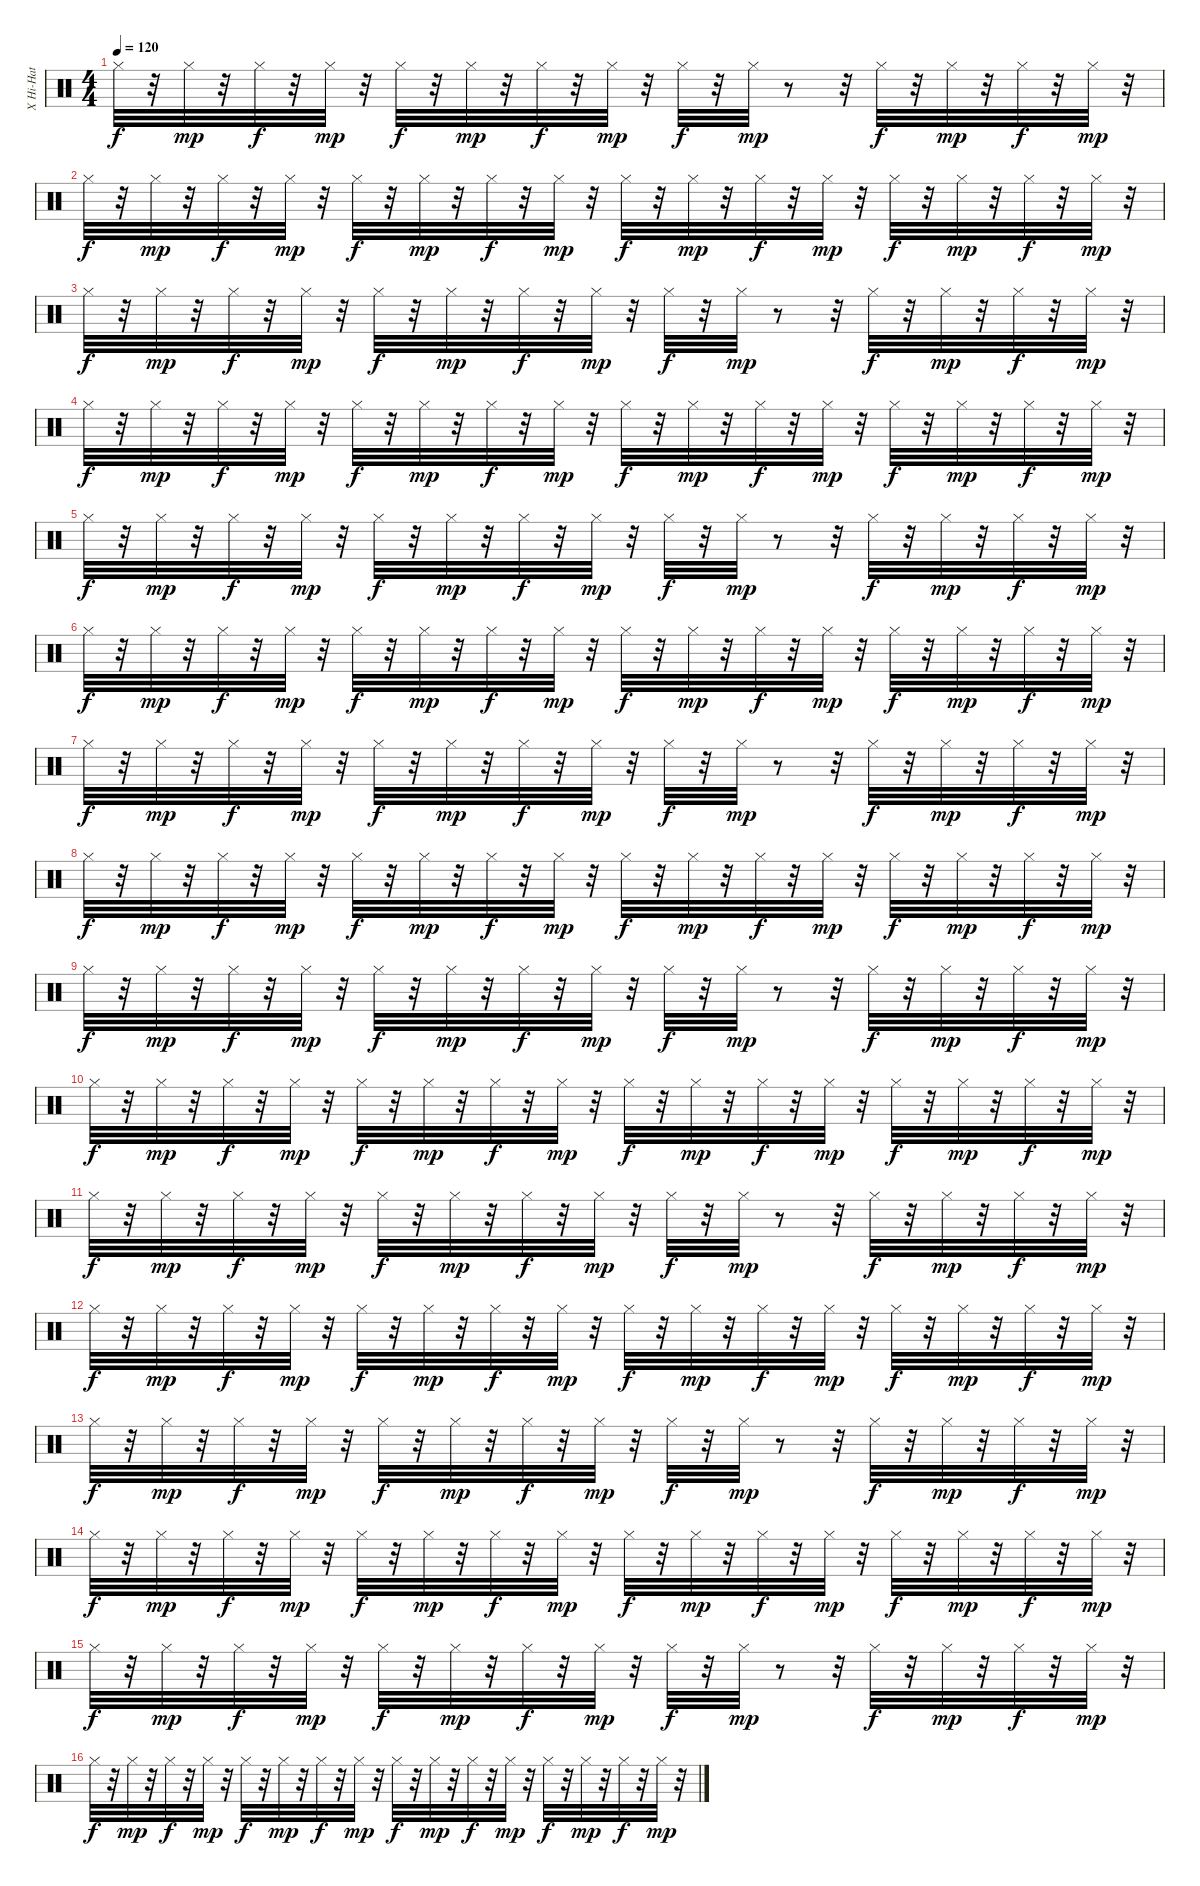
\track ("X Hi-Hat            " "X Hi-Hat  ") {instrument percussion}
\staff {score}
\articulation defaults
\ts (4 4)
\tempo 120
\clef neutral
\ks c "Hi-Hat (closed)".32{dy f}
r.32 "Hi-Hat (closed)".32{dy mp} r.32 "Hi-Hat (closed)".32{dy f} r.32 "Hi-Hat (closed)".32{dy mp} r.32 "Hi-Hat (closed)".32{dy f} r.32 "Hi-Hat (closed)".32{dy mp} r.32 "Hi-Hat (closed)".32{dy f} r.32 "Hi-Hat (closed)".32{dy mp} r.32 "Hi-Hat (closed)".32{dy f} r.32 "Hi-Hat (closed)".32{dy mp} r.8 r.32 "Hi-Hat (closed)".32{dy f} r.32 "Hi-Hat (closed)".32{dy mp} r.32 "Hi-Hat (closed)".32{dy f} r.32 "Hi-Hat (closed)".32{dy mp} r.32 |
"Hi-Hat (closed)".32{dy f} r.32 "Hi-Hat (closed)".32{dy mp} r.32 "Hi-Hat (closed)".32{dy f} r.32 "Hi-Hat (closed)".32{dy mp} r.32 "Hi-Hat (closed)".32{dy f} r.32 "Hi-Hat (closed)".32{dy mp} r.32 "Hi-Hat (closed)".32{dy f} r.32 "Hi-Hat (closed)".32{dy mp} r.32 "Hi-Hat (closed)".32{dy f} r.32 "Hi-Hat (closed)".32{dy mp} r.32 "Hi-Hat (closed)".32{dy f} r.32 "Hi-Hat (closed)".32{dy mp} r.32 "Hi-Hat (closed)".32{dy f} r.32 "Hi-Hat (closed)".32{dy mp} r.32 "Hi-Hat (closed)".32{dy f} r.32 "Hi-Hat (closed)".32{dy mp} r.32 |
"Hi-Hat (closed)".32{dy f} r.32 "Hi-Hat (closed)".32{dy mp} r.32 "Hi-Hat (closed)".32{dy f} r.32 "Hi-Hat (closed)".32{dy mp} r.32 "Hi-Hat (closed)".32{dy f} r.32 "Hi-Hat (closed)".32{dy mp} r.32 "Hi-Hat (closed)".32{dy f} r.32 "Hi-Hat (closed)".32{dy mp} r.32 "Hi-Hat (closed)".32{dy f} r.32 "Hi-Hat (closed)".32{dy mp} r.8 r.32 "Hi-Hat (closed)".32{dy f} r.32 "Hi-Hat (closed)".32{dy mp} r.32 "Hi-Hat (closed)".32{dy f} r.32 "Hi-Hat (closed)".32{dy mp} r.32 |
"Hi-Hat (closed)".32{dy f} r.32 "Hi-Hat (closed)".32{dy mp} r.32 "Hi-Hat (closed)".32{dy f} r.32 "Hi-Hat (closed)".32{dy mp} r.32 "Hi-Hat (closed)".32{dy f} r.32 "Hi-Hat (closed)".32{dy mp} r.32 "Hi-Hat (closed)".32{dy f} r.32 "Hi-Hat (closed)".32{dy mp} r.32 "Hi-Hat (closed)".32{dy f} r.32 "Hi-Hat (closed)".32{dy mp} r.32 "Hi-Hat (closed)".32{dy f} r.32 "Hi-Hat (closed)".32{dy mp} r.32 "Hi-Hat (closed)".32{dy f} r.32 "Hi-Hat (closed)".32{dy mp} r.32 "Hi-Hat (closed)".32{dy f} r.32 "Hi-Hat (closed)".32{dy mp} r.32 |
"Hi-Hat (closed)".32{dy f} r.32 "Hi-Hat (closed)".32{dy mp} r.32 "Hi-Hat (closed)".32{dy f} r.32 "Hi-Hat (closed)".32{dy mp} r.32 "Hi-Hat (closed)".32{dy f} r.32 "Hi-Hat (closed)".32{dy mp} r.32 "Hi-Hat (closed)".32{dy f} r.32 "Hi-Hat (closed)".32{dy mp} r.32 "Hi-Hat (closed)".32{dy f} r.32 "Hi-Hat (closed)".32{dy mp} r.8 r.32 "Hi-Hat (closed)".32{dy f} r.32 "Hi-Hat (closed)".32{dy mp} r.32 "Hi-Hat (closed)".32{dy f} r.32 "Hi-Hat (closed)".32{dy mp} r.32 |
"Hi-Hat (closed)".32{dy f} r.32 "Hi-Hat (closed)".32{dy mp} r.32 "Hi-Hat (closed)".32{dy f} r.32 "Hi-Hat (closed)".32{dy mp} r.32 "Hi-Hat (closed)".32{dy f} r.32 "Hi-Hat (closed)".32{dy mp} r.32 "Hi-Hat (closed)".32{dy f} r.32 "Hi-Hat (closed)".32{dy mp} r.32 "Hi-Hat (closed)".32{dy f} r.32 "Hi-Hat (closed)".32{dy mp} r.32 "Hi-Hat (closed)".32{dy f} r.32 "Hi-Hat (closed)".32{dy mp} r.32 "Hi-Hat (closed)".32{dy f} r.32 "Hi-Hat (closed)".32{dy mp} r.32 "Hi-Hat (closed)".32{dy f} r.32 "Hi-Hat (closed)".32{dy mp} r.32 |
"Hi-Hat (closed)".32{dy f} r.32 "Hi-Hat (closed)".32{dy mp} r.32 "Hi-Hat (closed)".32{dy f} r.32 "Hi-Hat (closed)".32{dy mp} r.32 "Hi-Hat (closed)".32{dy f} r.32 "Hi-Hat (closed)".32{dy mp} r.32 "Hi-Hat (closed)".32{dy f} r.32 "Hi-Hat (closed)".32{dy mp} r.32 "Hi-Hat (closed)".32{dy f} r.32 "Hi-Hat (closed)".32{dy mp} r.8 r.32 "Hi-Hat (closed)".32{dy f} r.32 "Hi-Hat (closed)".32{dy mp} r.32 "Hi-Hat (closed)".32{dy f} r.32 "Hi-Hat (closed)".32{dy mp} r.32 |
"Hi-Hat (closed)".32{dy f} r.32 "Hi-Hat (closed)".32{dy mp} r.32 "Hi-Hat (closed)".32{dy f} r.32 "Hi-Hat (closed)".32{dy mp} r.32 "Hi-Hat (closed)".32{dy f} r.32 "Hi-Hat (closed)".32{dy mp} r.32 "Hi-Hat (closed)".32{dy f} r.32 "Hi-Hat (closed)".32{dy mp} r.32 "Hi-Hat (closed)".32{dy f} r.32 "Hi-Hat (closed)".32{dy mp} r.32 "Hi-Hat (closed)".32{dy f} r.32 "Hi-Hat (closed)".32{dy mp} r.32 "Hi-Hat (closed)".32{dy f} r.32 "Hi-Hat (closed)".32{dy mp} r.32 "Hi-Hat (closed)".32{dy f} r.32 "Hi-Hat (closed)".32{dy mp} r.32 |
"Hi-Hat (closed)".32{dy f} r.32 "Hi-Hat (closed)".32{dy mp} r.32 "Hi-Hat (closed)".32{dy f} r.32 "Hi-Hat (closed)".32{dy mp} r.32 "Hi-Hat (closed)".32{dy f} r.32 "Hi-Hat (closed)".32{dy mp} r.32 "Hi-Hat (closed)".32{dy f} r.32 "Hi-Hat (closed)".32{dy mp} r.32 "Hi-Hat (closed)".32{dy f} r.32 "Hi-Hat (closed)".32{dy mp} r.8 r.32 "Hi-Hat (closed)".32{dy f} r.32 "Hi-Hat (closed)".32{dy mp} r.32 "Hi-Hat (closed)".32{dy f} r.32 "Hi-Hat (closed)".32{dy mp} r.32 |
"Hi-Hat (closed)".32{dy f} r.32 "Hi-Hat (closed)".32{dy mp} r.32 "Hi-Hat (closed)".32{dy f} r.32 "Hi-Hat (closed)".32{dy mp} r.32 "Hi-Hat (closed)".32{dy f} r.32 "Hi-Hat (closed)".32{dy mp} r.32 "Hi-Hat (closed)".32{dy f} r.32 "Hi-Hat (closed)".32{dy mp} r.32 "Hi-Hat (closed)".32{dy f} r.32 "Hi-Hat (closed)".32{dy mp} r.32 "Hi-Hat (closed)".32{dy f} r.32 "Hi-Hat (closed)".32{dy mp} r.32 "Hi-Hat (closed)".32{dy f} r.32 "Hi-Hat (closed)".32{dy mp} r.32 "Hi-Hat (closed)".32{dy f} r.32 "Hi-Hat (closed)".32{dy mp} r.32 |
"Hi-Hat (closed)".32{dy f} r.32 "Hi-Hat (closed)".32{dy mp} r.32 "Hi-Hat (closed)".32{dy f} r.32 "Hi-Hat (closed)".32{dy mp} r.32 "Hi-Hat (closed)".32{dy f} r.32 "Hi-Hat (closed)".32{dy mp} r.32 "Hi-Hat (closed)".32{dy f} r.32 "Hi-Hat (closed)".32{dy mp} r.32 "Hi-Hat (closed)".32{dy f} r.32 "Hi-Hat (closed)".32{dy mp} r.8 r.32 "Hi-Hat (closed)".32{dy f} r.32 "Hi-Hat (closed)".32{dy mp} r.32 "Hi-Hat (closed)".32{dy f} r.32 "Hi-Hat (closed)".32{dy mp} r.32 |
"Hi-Hat (closed)".32{dy f} r.32 "Hi-Hat (closed)".32{dy mp} r.32 "Hi-Hat (closed)".32{dy f} r.32 "Hi-Hat (closed)".32{dy mp} r.32 "Hi-Hat (closed)".32{dy f} r.32 "Hi-Hat (closed)".32{dy mp} r.32 "Hi-Hat (closed)".32{dy f} r.32 "Hi-Hat (closed)".32{dy mp} r.32 "Hi-Hat (closed)".32{dy f} r.32 "Hi-Hat (closed)".32{dy mp} r.32 "Hi-Hat (closed)".32{dy f} r.32 "Hi-Hat (closed)".32{dy mp} r.32 "Hi-Hat (closed)".32{dy f} r.32 "Hi-Hat (closed)".32{dy mp} r.32 "Hi-Hat (closed)".32{dy f} r.32 "Hi-Hat (closed)".32{dy mp} r.32 |
"Hi-Hat (closed)".32{dy f} r.32 "Hi-Hat (closed)".32{dy mp} r.32 "Hi-Hat (closed)".32{dy f} r.32 "Hi-Hat (closed)".32{dy mp} r.32 "Hi-Hat (closed)".32{dy f} r.32 "Hi-Hat (closed)".32{dy mp} r.32 "Hi-Hat (closed)".32{dy f} r.32 "Hi-Hat (closed)".32{dy mp} r.32 "Hi-Hat (closed)".32{dy f} r.32 "Hi-Hat (closed)".32{dy mp} r.8 r.32 "Hi-Hat (closed)".32{dy f} r.32 "Hi-Hat (closed)".32{dy mp} r.32 "Hi-Hat (closed)".32{dy f} r.32 "Hi-Hat (closed)".32{dy mp} r.32 |
"Hi-Hat (closed)".32{dy f} r.32 "Hi-Hat (closed)".32{dy mp} r.32 "Hi-Hat (closed)".32{dy f} r.32 "Hi-Hat (closed)".32{dy mp} r.32 "Hi-Hat (closed)".32{dy f} r.32 "Hi-Hat (closed)".32{dy mp} r.32 "Hi-Hat (closed)".32{dy f} r.32 "Hi-Hat (closed)".32{dy mp} r.32 "Hi-Hat (closed)".32{dy f} r.32 "Hi-Hat (closed)".32{dy mp} r.32 "Hi-Hat (closed)".32{dy f} r.32 "Hi-Hat (closed)".32{dy mp} r.32 "Hi-Hat (closed)".32{dy f} r.32 "Hi-Hat (closed)".32{dy mp} r.32 "Hi-Hat (closed)".32{dy f} r.32 "Hi-Hat (closed)".32{dy mp} r.32 |
"Hi-Hat (closed)".32{dy f} r.32 "Hi-Hat (closed)".32{dy mp} r.32 "Hi-Hat (closed)".32{dy f} r.32 "Hi-Hat (closed)".32{dy mp} r.32 "Hi-Hat (closed)".32{dy f} r.32 "Hi-Hat (closed)".32{dy mp} r.32 "Hi-Hat (closed)".32{dy f} r.32 "Hi-Hat (closed)".32{dy mp} r.32 "Hi-Hat (closed)".32{dy f} r.32 "Hi-Hat (closed)".32{dy mp} r.8 r.32 "Hi-Hat (closed)".32{dy f} r.32 "Hi-Hat (closed)".32{dy mp} r.32 "Hi-Hat (closed)".32{dy f} r.32 "Hi-Hat (closed)".32{dy mp} r.32 |
"Hi-Hat (closed)".32{dy f} r.32 "Hi-Hat (closed)".32{dy mp} r.32 "Hi-Hat (closed)".32{dy f} r.32 "Hi-Hat (closed)".32{dy mp} r.32 "Hi-Hat (closed)".32{dy f} r.32 "Hi-Hat (closed)".32{dy mp} r.32 "Hi-Hat (closed)".32{dy f} r.32 "Hi-Hat (closed)".32{dy mp} r.32 "Hi-Hat (closed)".32{dy f} r.32 "Hi-Hat (closed)".32{dy mp} r.32 "Hi-Hat (closed)".32{dy f} r.32 "Hi-Hat (closed)".32{dy mp} r.32 "Hi-Hat (closed)".32{dy f} r.32 "Hi-Hat (closed)".32{dy mp} r.32 "Hi-Hat (closed)".32{dy f} r.32 "Hi-Hat (closed)".32{dy mp} r.32
